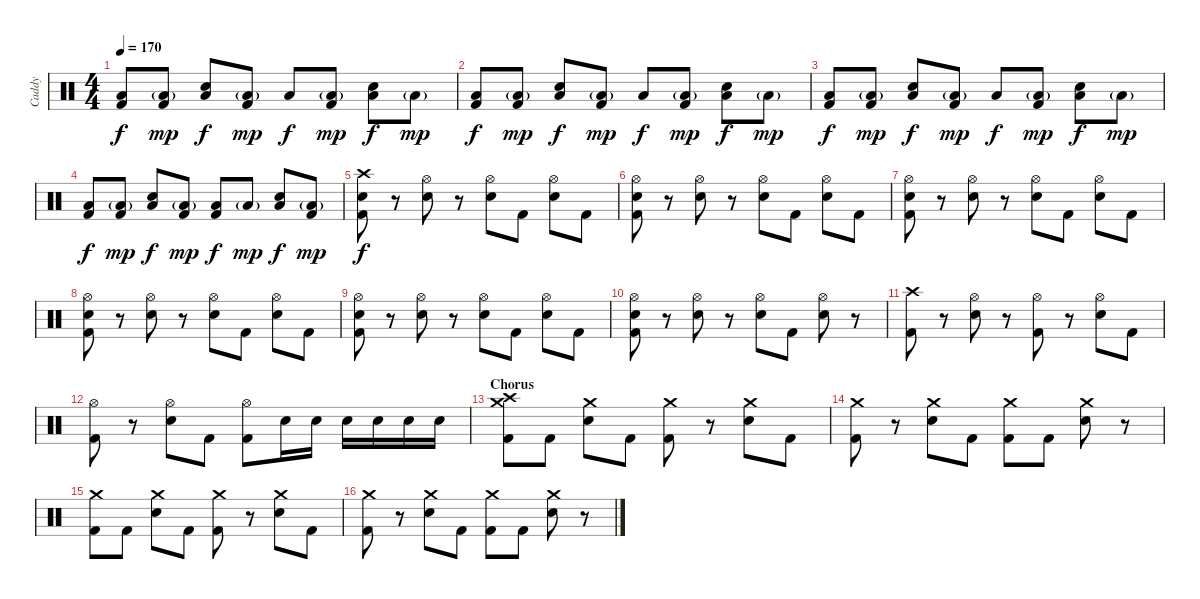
\track ("Caddy" "Caddy") {instrument percussion}
\staff {score}
\articulation defaults
\ts (4 4)
\tempo 170
\clef neutral
\ks c
("Low Floor Tom (hit)" "Kick (hit) 2").8{dy f} ("Low Floor Tom (hit)"{g} "Kick (hit) 2").8{dy mp} ("Electric Snare (hit)" "Low Floor Tom (hit)").8{dy f} ("Low Floor Tom (hit)"{g} "Kick (hit) 2").8{dy mp} "Low Floor Tom (hit)".8{dy f} ("Low Floor Tom (hit)"{g} "Kick (hit) 2").8{dy mp} ("Electric Snare (hit)" "Low Floor Tom (hit)").8{dy f} "Low Floor Tom (hit)"{g}.8{dy mp} |
("Low Floor Tom (hit)" "Kick (hit) 2").8{dy f} ("Low Floor Tom (hit)"{g} "Kick (hit) 2").8{dy mp} ("Electric Snare (hit)" "Low Floor Tom (hit)").8{dy f} ("Low Floor Tom (hit)"{g} "Kick (hit) 2").8{dy mp} "Low Floor Tom (hit)".8{dy f} ("Low Floor Tom (hit)"{g} "Kick (hit) 2").8{dy mp} ("Electric Snare (hit)" "Low Floor Tom (hit)").8{dy f} "Low Floor Tom (hit)"{g}.8{dy mp} |
("Low Floor Tom (hit)" "Kick (hit) 2").8{dy f} ("Low Floor Tom (hit)"{g} "Kick (hit) 2").8{dy mp} ("Electric Snare (hit)" "Low Floor Tom (hit)").8{dy f} ("Low Floor Tom (hit)"{g} "Kick (hit) 2").8{dy mp} "Low Floor Tom (hit)".8{dy f} ("Low Floor Tom (hit)"{g} "Kick (hit) 2").8{dy mp} ("Electric Snare (hit)" "Low Floor Tom (hit)").8{dy f} "Low Floor Tom (hit)"{g}.8{dy mp} |
("Low Floor Tom (hit)" "Kick (hit) 2").8{dy f} ("Low Floor Tom (hit)"{g} "Kick (hit) 2").8{dy mp} ("Electric Snare (hit)" "Low Floor Tom (hit)").8{dy f} ("Low Floor Tom (hit)"{g} "Kick (hit) 2").8{dy mp} ("Low Floor Tom (hit)" "Kick (hit) 2").8{dy f} "Low Floor Tom (hit)"{g}.8{dy mp} ("Electric Snare (hit)" "Low Floor Tom (hit)").8{dy f} ("Low Floor Tom (hit)"{g} "Kick (hit) 2").8{dy mp} |
("Crash high (hit)" "Electric Snare (hit)" "Kick (hit) 2").8{dy f} r.8 ("Hi-Hat (open)" "Electric Snare (hit)").8 r.8 ("Hi-Hat (open)" "Electric Snare (hit)").8 "Kick (hit) 2".8 ("Hi-Hat (open)" "Electric Snare (hit)").8 "Kick (hit) 2".8 |
("Hi-Hat (open)" "Electric Snare (hit)" "Kick (hit) 2").8 r.8 ("Hi-Hat (open)" "Electric Snare (hit)").8 r.8 ("Hi-Hat (open)" "Electric Snare (hit)").8 "Kick (hit) 2".8 ("Hi-Hat (open)" "Electric Snare (hit)").8 "Kick (hit) 2".8 |
("Hi-Hat (open)" "Electric Snare (hit)" "Kick (hit) 2").8 r.8 ("Hi-Hat (open)" "Electric Snare (hit)").8 r.8 ("Hi-Hat (open)" "Electric Snare (hit)").8 "Kick (hit) 2".8 ("Hi-Hat (open)" "Electric Snare (hit)").8 "Kick (hit) 2".8 |
("Hi-Hat (open)" "Electric Snare (hit)" "Kick (hit) 2").8 r.8 ("Hi-Hat (open)" "Electric Snare (hit)").8 r.8 ("Hi-Hat (open)" "Electric Snare (hit)").8 "Kick (hit) 2".8 ("Hi-Hat (open)" "Electric Snare (hit)").8 "Kick (hit) 2".8 |
("Hi-Hat (open)" "Electric Snare (hit)" "Kick (hit) 2").8 r.8 ("Hi-Hat (open)" "Electric Snare (hit)").8 r.8 ("Hi-Hat (open)" "Electric Snare (hit)").8 "Kick (hit) 2".8 ("Hi-Hat (open)" "Electric Snare (hit)").8 "Kick (hit) 2".8 |
("Hi-Hat (open)" "Electric Snare (hit)" "Kick (hit) 2").8 r.8 ("Hi-Hat (open)" "Electric Snare (hit)").8 r.8 ("Hi-Hat (open)" "Electric Snare (hit)").8 "Kick (hit) 2".8 ("Hi-Hat (open)" "Electric Snare (hit)").8 r.8 |
("Crash high (hit)" "Kick (hit) 2").8 r.8 ("Hi-Hat (open)" "Electric Snare (hit)").8 r.8 ("Hi-Hat (open)" "Kick (hit) 2").8 r.8 ("Hi-Hat (open)" "Electric Snare (hit)").8 "Kick (hit) 2".8 |
("Hi-Hat (open)" "Kick (hit) 2").8 r.8 ("Hi-Hat (open)" "Electric Snare (hit)").8 "Kick (hit) 2".8 ("Hi-Hat (open)" "Kick (hit) 2").8 "Electric Snare (hit)".16 "Electric Snare (hit)".16 "Electric Snare (hit)".16 "Electric Snare (hit)".16 "Electric Snare (hit)".16 "Electric Snare (hit)".16 |
\section ("" "Chorus")
("Crash high (hit)" "Crash medium (hit)" "Kick (hit) 2").8 "Kick (hit) 2".8 ("Crash medium (hit)" "Electric Snare (hit)").8 "Kick (hit) 2".8 ("Crash medium (hit)" "Kick (hit) 2").8 r.8 ("Crash medium (hit)" "Electric Snare (hit)").8 "Kick (hit) 2".8 |
("Crash medium (hit)" "Kick (hit) 2").8 r.8 ("Crash medium (hit)" "Electric Snare (hit)").8 "Kick (hit) 2".8 ("Crash medium (hit)" "Kick (hit) 2").8 "Kick (hit) 2".8 ("Crash medium (hit)" "Electric Snare (hit)").8 r.8 |
("Crash medium (hit)" "Kick (hit) 2").8 "Kick (hit) 2".8 ("Crash medium (hit)" "Electric Snare (hit)").8 "Kick (hit) 2".8 ("Crash medium (hit)" "Kick (hit) 2").8 r.8 ("Crash medium (hit)" "Electric Snare (hit)").8 "Kick (hit) 2".8 |
("Crash medium (hit)" "Kick (hit) 2").8 r.8 ("Crash medium (hit)" "Electric Snare (hit)").8 "Kick (hit) 2".8 ("Crash medium (hit)" "Kick (hit) 2").8 "Kick (hit) 2".8 ("Crash medium (hit)" "Electric Snare (hit)").8 r.8
